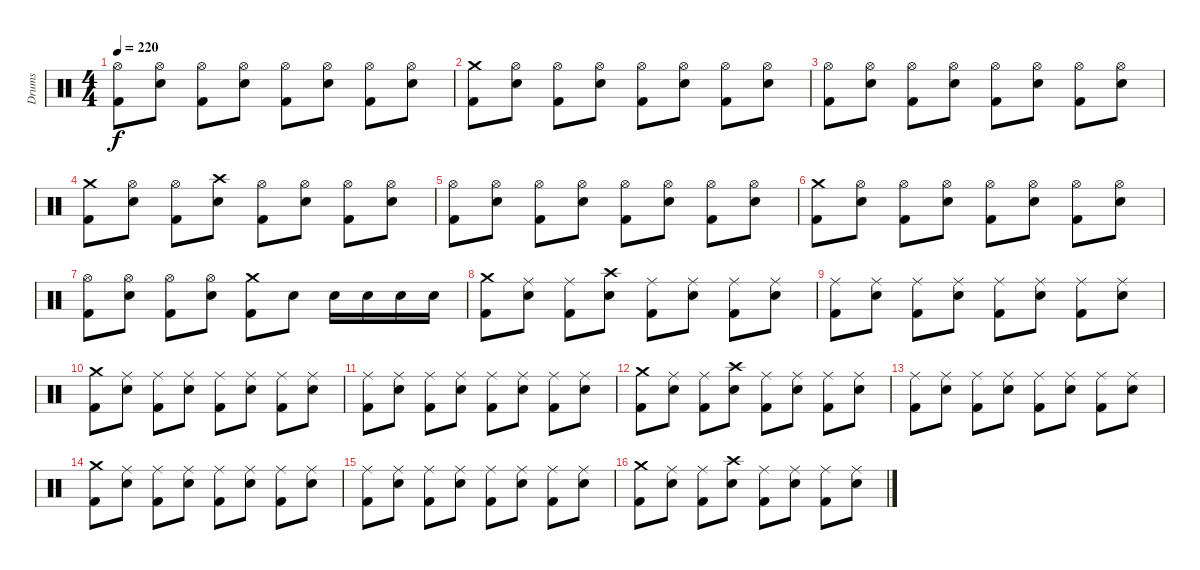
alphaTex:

\track ("Drums" "Drums") {instrument percussion}
\staff {score}
\articulation defaults
\ts (4 4)
\tempo 220
\clef neutral
\ks c
("Hi-Hat (open)" "Kick (hit) 2").8{dy f} ("Hi-Hat (open)" "Electric Snare (hit)").8 ("Hi-Hat (open)" "Kick (hit) 2").8 ("Hi-Hat (open)" "Electric Snare (hit)").8 ("Hi-Hat (open)" "Kick (hit) 2").8 ("Hi-Hat (open)" "Electric Snare (hit)").8 ("Hi-Hat (open)" "Kick (hit) 2").8 ("Hi-Hat (open)" "Electric Snare (hit)").8 |
("Crash medium (hit)" "Kick (hit) 2").8 ("Hi-Hat (open)" "Electric Snare (hit)").8 ("Hi-Hat (open)" "Kick (hit) 2").8 ("Hi-Hat (open)" "Electric Snare (hit)").8 ("Hi-Hat (open)" "Kick (hit) 2").8 ("Hi-Hat (open)" "Electric Snare (hit)").8 ("Hi-Hat (open)" "Kick (hit) 2").8 ("Hi-Hat (open)" "Electric Snare (hit)").8 |
("Hi-Hat (open)" "Kick (hit) 2").8 ("Hi-Hat (open)" "Electric Snare (hit)").8 ("Hi-Hat (open)" "Kick (hit) 2").8 ("Hi-Hat (open)" "Electric Snare (hit)").8 ("Hi-Hat (open)" "Kick (hit) 2").8 ("Hi-Hat (open)" "Electric Snare (hit)").8 ("Hi-Hat (open)" "Kick (hit) 2").8 ("Hi-Hat (open)" "Electric Snare (hit)").8 |
("Crash medium (hit)" "Kick (hit) 2").8 ("Hi-Hat (open)" "Electric Snare (hit)").8 ("Hi-Hat (open)" "Kick (hit) 2").8 ("Crash high (hit)" "Electric Snare (hit)").8 ("Hi-Hat (open)" "Kick (hit) 2").8 ("Hi-Hat (open)" "Electric Snare (hit)").8 ("Hi-Hat (open)" "Kick (hit) 2").8 ("Hi-Hat (open)" "Electric Snare (hit)").8 |
("Hi-Hat (open)" "Kick (hit) 2").8 ("Hi-Hat (open)" "Electric Snare (hit)").8 ("Hi-Hat (open)" "Kick (hit) 2").8 ("Hi-Hat (open)" "Electric Snare (hit)").8 ("Hi-Hat (open)" "Kick (hit) 2").8 ("Hi-Hat (open)" "Electric Snare (hit)").8 ("Hi-Hat (open)" "Kick (hit) 2").8 ("Hi-Hat (open)" "Electric Snare (hit)").8 |
("Crash medium (hit)" "Kick (hit) 2").8 ("Hi-Hat (open)" "Electric Snare (hit)").8 ("Hi-Hat (open)" "Kick (hit) 2").8 ("Hi-Hat (open)" "Electric Snare (hit)").8 ("Hi-Hat (open)" "Kick (hit) 2").8 ("Hi-Hat (open)" "Electric Snare (hit)").8 ("Hi-Hat (open)" "Kick (hit) 2").8 ("Hi-Hat (open)" "Electric Snare (hit)").8 |
("Hi-Hat (open)" "Kick (hit) 2").8 ("Hi-Hat (open)" "Electric Snare (hit)").8 ("Hi-Hat (open)" "Kick (hit) 2").8 ("Hi-Hat (open)" "Electric Snare (hit)").8 ("Crash medium (hit)" "Kick (hit) 2").8 "Electric Snare (hit)".8 "Electric Snare (hit)".16 "Electric Snare (hit)".16 "Electric Snare (hit)".16 "Electric Snare (hit)".16 |
("Crash medium (hit)" "Kick (hit) 2").8 ("Ride (middle)" "Electric Snare (hit)").8 ("Ride (middle)" "Kick (hit) 2").8 ("Crash high (hit)" "Electric Snare (hit)").8 ("Ride (middle)" "Kick (hit) 2").8 ("Ride (middle)" "Electric Snare (hit)").8 ("Ride (middle)" "Kick (hit) 2").8 ("Ride (middle)" "Electric Snare (hit)").8 |
("Ride (middle)" "Kick (hit) 2").8 ("Ride (middle)" "Electric Snare (hit)").8 ("Ride (middle)" "Kick (hit) 2").8 ("Ride (middle)" "Electric Snare (hit)").8 ("Ride (middle)" "Kick (hit) 2").8 ("Ride (middle)" "Electric Snare (hit)").8 ("Ride (middle)" "Kick (hit) 2").8 ("Ride (middle)" "Electric Snare (hit)").8 |
("Crash medium (hit)" "Kick (hit) 2").8 ("Ride (middle)" "Electric Snare (hit)").8 ("Ride (middle)" "Kick (hit) 2").8 ("Ride (middle)" "Electric Snare (hit)").8 ("Ride (middle)" "Kick (hit) 2").8 ("Ride (middle)" "Electric Snare (hit)").8 ("Ride (middle)" "Kick (hit) 2").8 ("Ride (middle)" "Electric Snare (hit)").8 |
("Ride (middle)" "Kick (hit) 2").8 ("Ride (middle)" "Electric Snare (hit)").8 ("Ride (middle)" "Kick (hit) 2").8 ("Ride (middle)" "Electric Snare (hit)").8 ("Ride (middle)" "Kick (hit) 2").8 ("Ride (middle)" "Electric Snare (hit)").8 ("Ride (middle)" "Kick (hit) 2").8 ("Ride (middle)" "Electric Snare (hit)").8 |
("Crash medium (hit)" "Kick (hit) 2").8 ("Ride (middle)" "Electric Snare (hit)").8 ("Ride (middle)" "Kick (hit) 2").8 ("Crash high (hit)" "Electric Snare (hit)").8 ("Ride (middle)" "Kick (hit) 2").8 ("Ride (middle)" "Electric Snare (hit)").8 ("Ride (middle)" "Kick (hit) 2").8 ("Ride (middle)" "Electric Snare (hit)").8 |
("Ride (middle)" "Kick (hit) 2").8 ("Ride (middle)" "Electric Snare (hit)").8 ("Ride (middle)" "Kick (hit) 2").8 ("Ride (middle)" "Electric Snare (hit)").8 ("Ride (middle)" "Kick (hit) 2").8 ("Ride (middle)" "Electric Snare (hit)").8 ("Ride (middle)" "Kick (hit) 2").8 ("Ride (middle)" "Electric Snare (hit)").8 |
("Crash medium (hit)" "Kick (hit) 2").8 ("Ride (middle)" "Electric Snare (hit)").8 ("Ride (middle)" "Kick (hit) 2").8 ("Ride (middle)" "Electric Snare (hit)").8 ("Ride (middle)" "Kick (hit) 2").8 ("Ride (middle)" "Electric Snare (hit)").8 ("Ride (middle)" "Kick (hit) 2").8 ("Ride (middle)" "Electric Snare (hit)").8 |
("Ride (middle)" "Kick (hit) 2").8 ("Ride (middle)" "Electric Snare (hit)").8 ("Ride (middle)" "Kick (hit) 2").8 ("Ride (middle)" "Electric Snare (hit)").8 ("Ride (middle)" "Kick (hit) 2").8 ("Ride (middle)" "Electric Snare (hit)").8 ("Ride (middle)" "Kick (hit) 2").8 ("Ride (middle)" "Electric Snare (hit)").8 |
("Crash medium (hit)" "Kick (hit) 2").8 ("Ride (middle)" "Electric Snare (hit)").8 ("Ride (middle)" "Kick (hit) 2").8 ("Crash high (hit)" "Electric Snare (hit)").8 ("Ride (middle)" "Kick (hit) 2").8 ("Ride (middle)" "Electric Snare (hit)").8 ("Ride (middle)" "Kick (hit) 2").8 ("Ride (middle)" "Electric Snare (hit)").8
